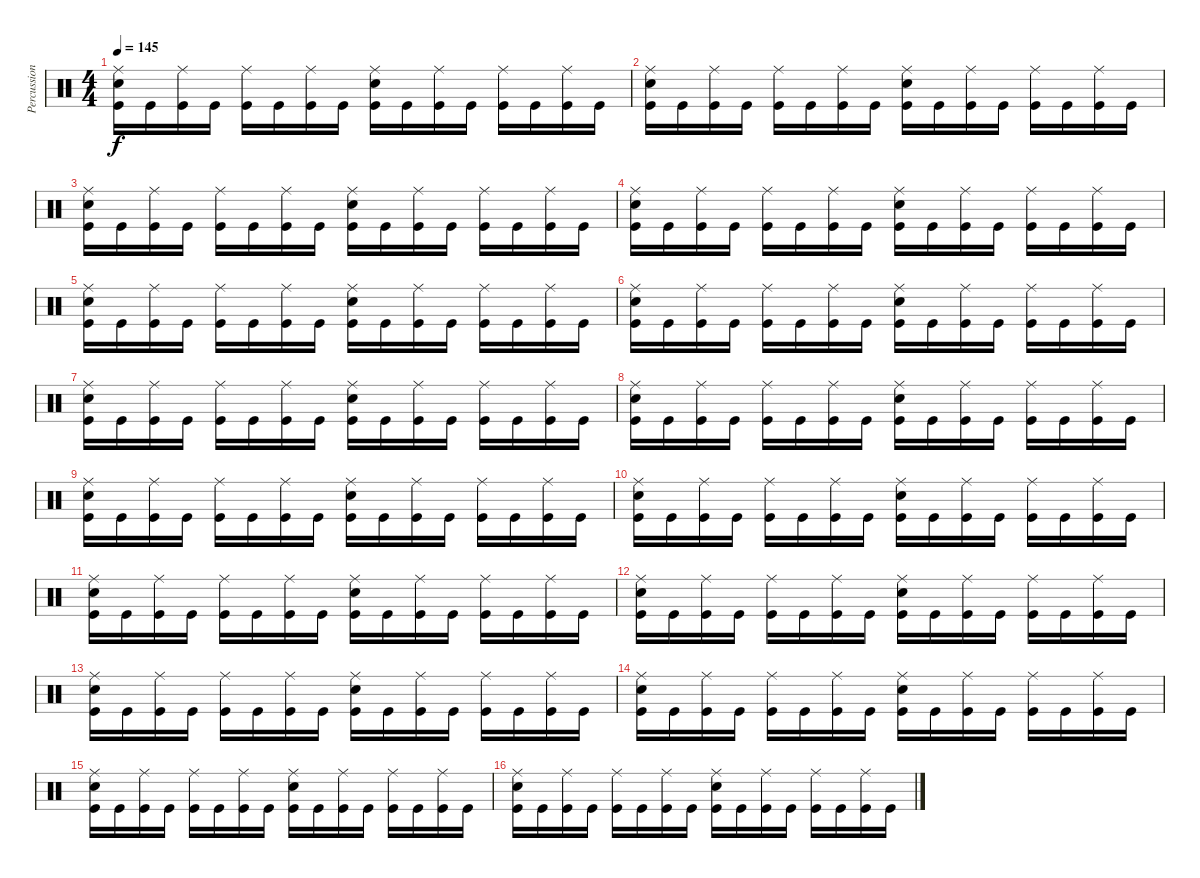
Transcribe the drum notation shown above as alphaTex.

\track ("Percussions" "Percussion") {instrument percussion}
\staff {score}
\articulation defaults
\ts (4 4)
\tempo 145
\clef neutral
\ks c
("Ride (middle)" "Snare (hit) 2" "Kick (hit)").16{dy f} "Kick (hit)".16 ("Ride (middle)" "Kick (hit)").16 "Kick (hit)".16 ("Ride (middle)" "Kick (hit)").16 "Kick (hit)".16 ("Ride (middle)" "Kick (hit)").16 "Kick (hit)".16 ("Ride (middle)" "Snare (hit) 2" "Kick (hit)").16 "Kick (hit)".16 ("Ride (middle)" "Kick (hit)").16 "Kick (hit)".16 ("Ride (middle)" "Kick (hit)").16 "Kick (hit)".16 ("Ride (middle)" "Kick (hit)").16 "Kick (hit)".16 |
("Ride (middle)" "Snare (hit) 2" "Kick (hit)").16 "Kick (hit)".16 ("Ride (middle)" "Kick (hit)").16 "Kick (hit)".16 ("Ride (middle)" "Kick (hit)").16 "Kick (hit)".16 ("Ride (middle)" "Kick (hit)").16 "Kick (hit)".16 ("Ride (middle)" "Snare (hit) 2" "Kick (hit)").16 "Kick (hit)".16 ("Ride (middle)" "Kick (hit)").16 "Kick (hit)".16 ("Ride (middle)" "Kick (hit)").16 "Kick (hit)".16 ("Ride (middle)" "Kick (hit)").16 "Kick (hit)".16 |
("Ride (middle)" "Snare (hit) 2" "Kick (hit)").16 "Kick (hit)".16 ("Ride (middle)" "Kick (hit)").16 "Kick (hit)".16 ("Ride (middle)" "Kick (hit)").16 "Kick (hit)".16 ("Ride (middle)" "Kick (hit)").16 "Kick (hit)".16 ("Ride (middle)" "Snare (hit) 2" "Kick (hit)").16 "Kick (hit)".16 ("Ride (middle)" "Kick (hit)").16 "Kick (hit)".16 ("Ride (middle)" "Kick (hit)").16 "Kick (hit)".16 ("Ride (middle)" "Kick (hit)").16 "Kick (hit)".16 |
("Ride (middle)" "Snare (hit) 2" "Kick (hit)").16 "Kick (hit)".16 ("Ride (middle)" "Kick (hit)").16 "Kick (hit)".16 ("Ride (middle)" "Kick (hit)").16 "Kick (hit)".16 ("Ride (middle)" "Kick (hit)").16 "Kick (hit)".16 ("Ride (middle)" "Snare (hit) 2" "Kick (hit)").16 "Kick (hit)".16 ("Ride (middle)" "Kick (hit)").16 "Kick (hit)".16 ("Ride (middle)" "Kick (hit)").16 "Kick (hit)".16 ("Ride (middle)" "Kick (hit)").16 "Kick (hit)".16 |
("Ride (middle)" "Snare (hit) 2" "Kick (hit)").16 "Kick (hit)".16 ("Ride (middle)" "Kick (hit)").16 "Kick (hit)".16 ("Ride (middle)" "Kick (hit)").16 "Kick (hit)".16 ("Ride (middle)" "Kick (hit)").16 "Kick (hit)".16 ("Ride (middle)" "Snare (hit) 2" "Kick (hit)").16 "Kick (hit)".16 ("Ride (middle)" "Kick (hit)").16 "Kick (hit)".16 ("Ride (middle)" "Kick (hit)").16 "Kick (hit)".16 ("Ride (middle)" "Kick (hit)").16 "Kick (hit)".16 |
("Ride (middle)" "Snare (hit) 2" "Kick (hit)").16 "Kick (hit)".16 ("Ride (middle)" "Kick (hit)").16 "Kick (hit)".16 ("Ride (middle)" "Kick (hit)").16 "Kick (hit)".16 ("Ride (middle)" "Kick (hit)").16 "Kick (hit)".16 ("Ride (middle)" "Snare (hit) 2" "Kick (hit)").16 "Kick (hit)".16 ("Ride (middle)" "Kick (hit)").16 "Kick (hit)".16 ("Ride (middle)" "Kick (hit)").16 "Kick (hit)".16 ("Ride (middle)" "Kick (hit)").16 "Kick (hit)".16 |
("Ride (middle)" "Snare (hit) 2" "Kick (hit)").16 "Kick (hit)".16 ("Ride (middle)" "Kick (hit)").16 "Kick (hit)".16 ("Ride (middle)" "Kick (hit)").16 "Kick (hit)".16 ("Ride (middle)" "Kick (hit)").16 "Kick (hit)".16 ("Ride (middle)" "Snare (hit) 2" "Kick (hit)").16 "Kick (hit)".16 ("Ride (middle)" "Kick (hit)").16 "Kick (hit)".16 ("Ride (middle)" "Kick (hit)").16 "Kick (hit)".16 ("Ride (middle)" "Kick (hit)").16 "Kick (hit)".16 |
("Ride (middle)" "Snare (hit) 2" "Kick (hit)").16 "Kick (hit)".16 ("Ride (middle)" "Kick (hit)").16 "Kick (hit)".16 ("Ride (middle)" "Kick (hit)").16 "Kick (hit)".16 ("Ride (middle)" "Kick (hit)").16 "Kick (hit)".16 ("Ride (middle)" "Snare (hit) 2" "Kick (hit)").16 "Kick (hit)".16 ("Ride (middle)" "Kick (hit)").16 "Kick (hit)".16 ("Ride (middle)" "Kick (hit)").16 "Kick (hit)".16 ("Ride (middle)" "Kick (hit)").16 "Kick (hit)".16 |
("Ride (middle)" "Snare (hit) 2" "Kick (hit)").16 "Kick (hit)".16 ("Ride (middle)" "Kick (hit)").16 "Kick (hit)".16 ("Ride (middle)" "Kick (hit)").16 "Kick (hit)".16 ("Ride (middle)" "Kick (hit)").16 "Kick (hit)".16 ("Ride (middle)" "Snare (hit) 2" "Kick (hit)").16 "Kick (hit)".16 ("Ride (middle)" "Kick (hit)").16 "Kick (hit)".16 ("Ride (middle)" "Kick (hit)").16 "Kick (hit)".16 ("Ride (middle)" "Kick (hit)").16 "Kick (hit)".16 |
("Ride (middle)" "Snare (hit) 2" "Kick (hit)").16 "Kick (hit)".16 ("Ride (middle)" "Kick (hit)").16 "Kick (hit)".16 ("Ride (middle)" "Kick (hit)").16 "Kick (hit)".16 ("Ride (middle)" "Kick (hit)").16 "Kick (hit)".16 ("Ride (middle)" "Snare (hit) 2" "Kick (hit)").16 "Kick (hit)".16 ("Ride (middle)" "Kick (hit)").16 "Kick (hit)".16 ("Ride (middle)" "Kick (hit)").16 "Kick (hit)".16 ("Ride (middle)" "Kick (hit)").16 "Kick (hit)".16 |
("Ride (middle)" "Snare (hit) 2" "Kick (hit)").16 "Kick (hit)".16 ("Ride (middle)" "Kick (hit)").16 "Kick (hit)".16 ("Ride (middle)" "Kick (hit)").16 "Kick (hit)".16 ("Ride (middle)" "Kick (hit)").16 "Kick (hit)".16 ("Ride (middle)" "Snare (hit) 2" "Kick (hit)").16 "Kick (hit)".16 ("Ride (middle)" "Kick (hit)").16 "Kick (hit)".16 ("Ride (middle)" "Kick (hit)").16 "Kick (hit)".16 ("Ride (middle)" "Kick (hit)").16 "Kick (hit)".16 |
("Ride (middle)" "Snare (hit) 2" "Kick (hit)").16 "Kick (hit)".16 ("Ride (middle)" "Kick (hit)").16 "Kick (hit)".16 ("Ride (middle)" "Kick (hit)").16 "Kick (hit)".16 ("Ride (middle)" "Kick (hit)").16 "Kick (hit)".16 ("Ride (middle)" "Snare (hit) 2" "Kick (hit)").16 "Kick (hit)".16 ("Ride (middle)" "Kick (hit)").16 "Kick (hit)".16 ("Ride (middle)" "Kick (hit)").16 "Kick (hit)".16 ("Ride (middle)" "Kick (hit)").16 "Kick (hit)".16 |
("Ride (middle)" "Snare (hit) 2" "Kick (hit)").16 "Kick (hit)".16 ("Ride (middle)" "Kick (hit)").16 "Kick (hit)".16 ("Ride (middle)" "Kick (hit)").16 "Kick (hit)".16 ("Ride (middle)" "Kick (hit)").16 "Kick (hit)".16 ("Ride (middle)" "Snare (hit) 2" "Kick (hit)").16 "Kick (hit)".16 ("Ride (middle)" "Kick (hit)").16 "Kick (hit)".16 ("Ride (middle)" "Kick (hit)").16 "Kick (hit)".16 ("Ride (middle)" "Kick (hit)").16 "Kick (hit)".16 |
("Ride (middle)" "Snare (hit) 2" "Kick (hit)").16 "Kick (hit)".16 ("Ride (middle)" "Kick (hit)").16 "Kick (hit)".16 ("Ride (middle)" "Kick (hit)").16 "Kick (hit)".16 ("Ride (middle)" "Kick (hit)").16 "Kick (hit)".16 ("Ride (middle)" "Snare (hit) 2" "Kick (hit)").16 "Kick (hit)".16 ("Ride (middle)" "Kick (hit)").16 "Kick (hit)".16 ("Ride (middle)" "Kick (hit)").16 "Kick (hit)".16 ("Ride (middle)" "Kick (hit)").16 "Kick (hit)".16 |
("Ride (middle)" "Snare (hit) 2" "Kick (hit)").16 "Kick (hit)".16 ("Ride (middle)" "Kick (hit)").16 "Kick (hit)".16 ("Ride (middle)" "Kick (hit)").16 "Kick (hit)".16 ("Ride (middle)" "Kick (hit)").16 "Kick (hit)".16 ("Ride (middle)" "Snare (hit) 2" "Kick (hit)").16 "Kick (hit)".16 ("Ride (middle)" "Kick (hit)").16 "Kick (hit)".16 ("Ride (middle)" "Kick (hit)").16 "Kick (hit)".16 ("Ride (middle)" "Kick (hit)").16 "Kick (hit)".16 |
("Ride (middle)" "Snare (hit) 2" "Kick (hit)").16 "Kick (hit)".16 ("Ride (middle)" "Kick (hit)").16 "Kick (hit)".16 ("Ride (middle)" "Kick (hit)").16 "Kick (hit)".16 ("Ride (middle)" "Kick (hit)").16 "Kick (hit)".16 ("Ride (middle)" "Snare (hit) 2" "Kick (hit)").16 "Kick (hit)".16 ("Ride (middle)" "Kick (hit)").16 "Kick (hit)".16 ("Ride (middle)" "Kick (hit)").16 "Kick (hit)".16 ("Ride (middle)" "Kick (hit)").16 "Kick (hit)".16
